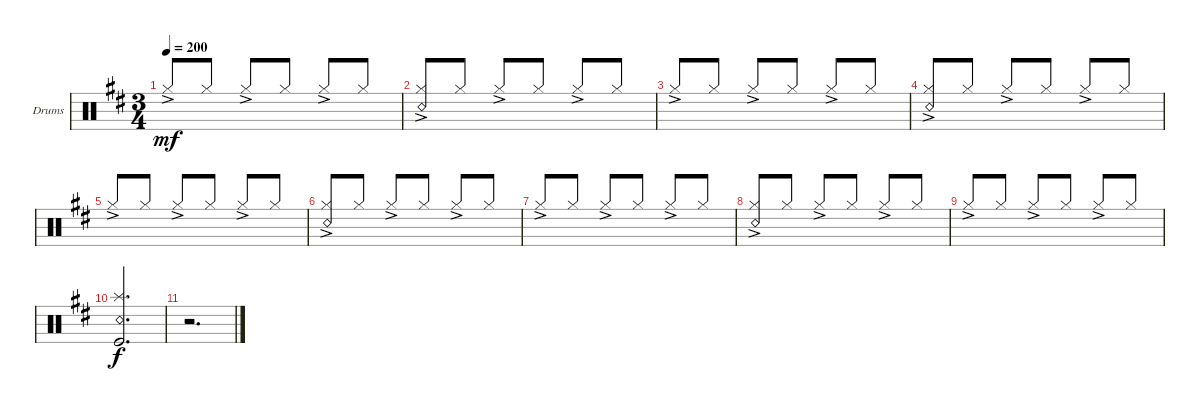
\defaultSystemsLayout 4
\bracketExtendMode groupsimilarinstruments
\firstSystemTrackNameOrientation horizontal
\otherSystemsTrackNameOrientation horizontal
\track ("Drumkit" "Drums") {instrument percussion}
\staff {score}
\articulation defaults
\ts (3 4)
\tempo 200
\clef neutral
\ks d "Hi-Hat (closed)"{ac}.8{dy mf beam invert} "Hi-Hat (closed)".8 "Hi-Hat (closed)"{ac}.8{beam invert} "Hi-Hat (closed)".8 "Hi-Hat (closed)"{ac}.8{beam invert} "Hi-Hat (closed)".8
|
("Hi-Hat (closed)"{ac} "Snare (rim shot)").8{beam invert} "Hi-Hat (closed)".8 "Hi-Hat (closed)"{ac}.8{beam invert} "Hi-Hat (closed)".8 "Hi-Hat (closed)"{ac}.8{beam invert} "Hi-Hat (closed)".8 |
"Hi-Hat (closed)"{ac}.8{beam invert} "Hi-Hat (closed)".8 "Hi-Hat (closed)"{ac}.8{beam invert} "Hi-Hat (closed)".8 "Hi-Hat (closed)"{ac}.8{beam invert} "Hi-Hat (closed)".8 |
("Hi-Hat (closed)"{ac} "Snare (rim shot)").8{beam invert} "Hi-Hat (closed)".8 "Hi-Hat (closed)"{ac}.8{beam invert} "Hi-Hat (closed)".8 "Hi-Hat (closed)"{ac}.8{beam invert} "Hi-Hat (closed)".8 |
"Hi-Hat (closed)"{ac}.8{beam invert} "Hi-Hat (closed)".8 "Hi-Hat (closed)"{ac}.8{beam invert} "Hi-Hat (closed)".8 "Hi-Hat (closed)"{ac}.8{beam invert} "Hi-Hat (closed)".8 |
("Hi-Hat (closed)"{ac} "Snare (rim shot)").8{beam invert} "Hi-Hat (closed)".8 "Hi-Hat (closed)"{ac}.8{beam invert} "Hi-Hat (closed)".8 "Hi-Hat (closed)"{ac}.8{beam invert} "Hi-Hat (closed)".8 |
"Hi-Hat (closed)"{ac}.8{beam invert} "Hi-Hat (closed)".8 "Hi-Hat (closed)"{ac}.8{beam invert} "Hi-Hat (closed)".8 "Hi-Hat (closed)"{ac}.8{beam invert} "Hi-Hat (closed)".8 |
("Hi-Hat (closed)"{ac} "Snare (rim shot)").8{beam invert} "Hi-Hat (closed)".8 "Hi-Hat (closed)"{ac}.8{beam invert} "Hi-Hat (closed)".8 "Hi-Hat (closed)"{ac}.8{beam invert} "Hi-Hat (closed)".8 |
"Hi-Hat (closed)"{ac}.8{beam invert} "Hi-Hat (closed)".8 "Hi-Hat (closed)"{ac}.8{beam invert} "Hi-Hat (closed)".8 "Hi-Hat (closed)"{ac}.8{beam invert} "Hi-Hat (closed)".8 |
("Kick (hit)" "Snare (rim shot)" "Splash (hit)").2{d dy f beam invert} |
r.2{d}
